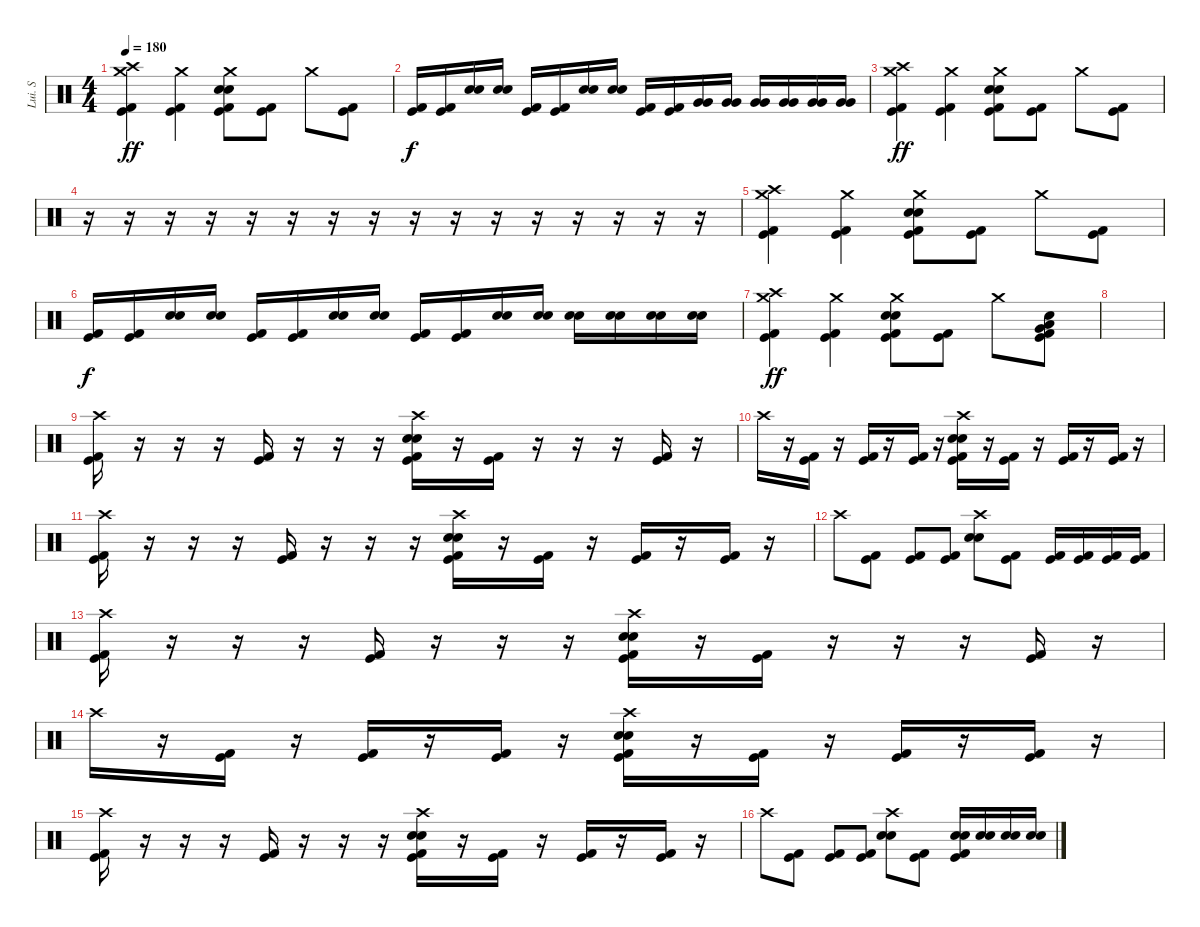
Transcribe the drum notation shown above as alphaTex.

\track ("Lui. S" "Lui. S") {instrument percussion}
\staff {score}
\articulation defaults
\ts (4 4)
\tempo 180
\clef neutral
\ks c
("Crash medium (hit)" "Crash high (hit)" "Kick (hit)" "Kick (hit) 2").4{dy ff} ("Crash medium (hit)" "Kick (hit)" "Kick (hit) 2").4 ("Crash medium (hit)" "Snare (hit) 2" "Electric Snare (hit)" "Kick (hit)" "Kick (hit) 2").8 ("Kick (hit)" "Kick (hit) 2").8 "Crash medium (hit)".8 ("Kick (hit)" "Kick (hit) 2").8 |
("Kick (hit)" "Kick (hit) 2").16{dy f} ("Kick (hit)" "Kick (hit) 2").16 ("Snare (hit) 2" "Electric Snare (hit)").16 ("Snare (hit) 2" "Electric Snare (hit)").16 ("Kick (hit)" "Kick (hit) 2").16 ("Kick (hit)" "Kick (hit) 2").16 ("Snare (hit) 2" "Electric Snare (hit)").16 ("Snare (hit) 2" "Electric Snare (hit)").16 ("Kick (hit)" "Kick (hit) 2").16 ("Kick (hit)" "Kick (hit) 2").16 ("Very Low Tom (hit)" "Very Low Tom (hit)").16 ("Very Low Tom (hit)" "Very Low Tom (hit)").16 ("Very Low Tom (hit)" "Very Low Tom (hit)").16 ("Very Low Tom (hit)" "Very Low Tom (hit)").16 ("Very Low Tom (hit)" "Very Low Tom (hit)").16 ("Very Low Tom (hit)" "Very Low Tom (hit)").16 |
("Crash medium (hit)" "Crash high (hit)" "Kick (hit)" "Kick (hit) 2").4{dy ff} ("Crash medium (hit)" "Kick (hit)" "Kick (hit) 2").4 ("Crash medium (hit)" "Snare (hit) 2" "Electric Snare (hit)" "Kick (hit)" "Kick (hit) 2").8 ("Kick (hit)" "Kick (hit) 2").8 "Crash medium (hit)".8 ("Kick (hit)" "Kick (hit) 2").8 |
r.16 r.16 r.16 r.16 r.16 r.16 r.16 r.16 r.16 r.16 r.16 r.16 r.16 r.16 r.16 r.16 |
("Crash medium (hit)" "Crash high (hit)" "Kick (hit)" "Kick (hit) 2").4 ("Crash medium (hit)" "Kick (hit)" "Kick (hit) 2").4 ("Crash medium (hit)" "Snare (hit) 2" "Electric Snare (hit)" "Kick (hit)" "Kick (hit) 2").8 ("Kick (hit)" "Kick (hit) 2").8 "Crash medium (hit)".8 ("Kick (hit)" "Kick (hit) 2").8 |
("Kick (hit)" "Kick (hit) 2").16{dy f} ("Kick (hit)" "Kick (hit) 2").16 ("Snare (hit) 2" "Electric Snare (hit)").16 ("Snare (hit) 2" "Electric Snare (hit)").16 ("Kick (hit)" "Kick (hit) 2").16 ("Kick (hit)" "Kick (hit) 2").16 ("Snare (hit) 2" "Electric Snare (hit)").16 ("Snare (hit) 2" "Electric Snare (hit)").16 ("Kick (hit)" "Kick (hit) 2").16 ("Kick (hit)" "Kick (hit) 2").16 ("Snare (hit) 2" "Electric Snare (hit)").16 ("Snare (hit) 2" "Electric Snare (hit)").16 ("Snare (hit) 2" "Electric Snare (hit)").16 ("Snare (hit) 2" "Electric Snare (hit)").16 ("Snare (hit) 2" "Electric Snare (hit)").16 ("Snare (hit) 2" "Electric Snare (hit)").16 |
("Crash medium (hit)" "Crash high (hit)" "Kick (hit)" "Kick (hit) 2").4{dy ff} ("Crash medium (hit)" "Kick (hit)" "Kick (hit) 2").4 ("Crash medium (hit)" "Snare (hit) 2" "Electric Snare (hit)" "Kick (hit)" "Kick (hit) 2").8 ("Kick (hit)" "Kick (hit) 2").8 "Crash medium (hit)".8 ("Snare (hit) 2" "Very Low Tom (hit)" "Low Floor Tom (hit)" "Kick (hit)" "Kick (hit) 2").8 |
|
("Crash high (hit)" "Kick (hit)" "Kick (hit) 2").16 r.16 r.16 r.16 ("Kick (hit)" "Kick (hit) 2").16 r.16 r.16 r.16 ("Crash high (hit)" "Electric Snare (hit)" "Snare (hit) 2" "Kick (hit)" "Kick (hit) 2").16 r.16 ("Kick (hit)" "Kick (hit) 2").16 r.16 r.16 r.16 ("Kick (hit)" "Kick (hit) 2").16 r.16 |
"Crash high (hit)".16 r.16 ("Kick (hit)" "Kick (hit) 2").16 r.16 ("Kick (hit)" "Kick (hit) 2").16 r.16 ("Kick (hit)" "Kick (hit) 2").16 r.16 ("Crash high (hit)" "Electric Snare (hit)" "Snare (hit) 2" "Kick (hit)" "Kick (hit) 2").16 r.16 ("Kick (hit)" "Kick (hit) 2").16 r.16 ("Kick (hit)" "Kick (hit) 2").16 r.16 ("Kick (hit)" "Kick (hit) 2").16 r.16 |
("Crash high (hit)" "Kick (hit)" "Kick (hit) 2").16 r.16 r.16 r.16 ("Kick (hit)" "Kick (hit) 2").16 r.16 r.16 r.16 ("Crash high (hit)" "Snare (hit) 2" "Electric Snare (hit)" "Kick (hit)" "Kick (hit) 2").16 r.16 ("Kick (hit)" "Kick (hit) 2").16 r.16 ("Kick (hit)" "Kick (hit) 2").16 r.16 ("Kick (hit)" "Kick (hit) 2").16 r.16 |
"Crash high (hit)".8 ("Kick (hit)" "Kick (hit) 2").8 ("Kick (hit)" "Kick (hit) 2").8 ("Kick (hit)" "Kick (hit) 2").8 ("Crash high (hit)" "Electric Snare (hit)" "Snare (hit) 2").8 ("Kick (hit)" "Kick (hit) 2").8 ("Kick (hit)" "Kick (hit) 2").16 ("Kick (hit)" "Kick (hit) 2").16 ("Kick (hit)" "Kick (hit) 2").16 ("Kick (hit)" "Kick (hit) 2").16 |
("Crash high (hit)" "Kick (hit)" "Kick (hit) 2").16 r.16 r.16 r.16 ("Kick (hit)" "Kick (hit) 2").16 r.16 r.16 r.16 ("Crash high (hit)" "Electric Snare (hit)" "Snare (hit) 2" "Kick (hit)" "Kick (hit) 2").16 r.16 ("Kick (hit)" "Kick (hit) 2").16 r.16 r.16 r.16 ("Kick (hit)" "Kick (hit) 2").16 r.16 |
"Crash high (hit)".16 r.16 ("Kick (hit)" "Kick (hit) 2").16 r.16 ("Kick (hit)" "Kick (hit) 2").16 r.16 ("Kick (hit)" "Kick (hit) 2").16 r.16 ("Crash high (hit)" "Electric Snare (hit)" "Snare (hit) 2" "Kick (hit)" "Kick (hit) 2").16 r.16 ("Kick (hit)" "Kick (hit) 2").16 r.16 ("Kick (hit)" "Kick (hit) 2").16 r.16 ("Kick (hit)" "Kick (hit) 2").16 r.16 |
("Crash high (hit)" "Kick (hit)" "Kick (hit) 2").16 r.16 r.16 r.16 ("Kick (hit)" "Kick (hit) 2").16 r.16 r.16 r.16 ("Crash high (hit)" "Snare (hit) 2" "Electric Snare (hit)" "Kick (hit)" "Kick (hit) 2").16 r.16 ("Kick (hit)" "Kick (hit) 2").16 r.16 ("Kick (hit)" "Kick (hit) 2").16 r.16 ("Kick (hit)" "Kick (hit) 2").16 r.16 |
"Crash high (hit)".8 ("Kick (hit)" "Kick (hit) 2").8 ("Kick (hit)" "Kick (hit) 2").8 ("Kick (hit)" "Kick (hit) 2").8 ("Crash high (hit)" "Electric Snare (hit)" "Snare (hit) 2").8 ("Kick (hit)" "Kick (hit) 2").8 ("Electric Snare (hit)" "Snare (hit) 2" "Kick (hit)" "Kick (hit) 2").16 ("Electric Snare (hit)" "Snare (hit) 2").16 ("Electric Snare (hit)" "Snare (hit) 2").16 ("Electric Snare (hit)" "Snare (hit) 2").16
